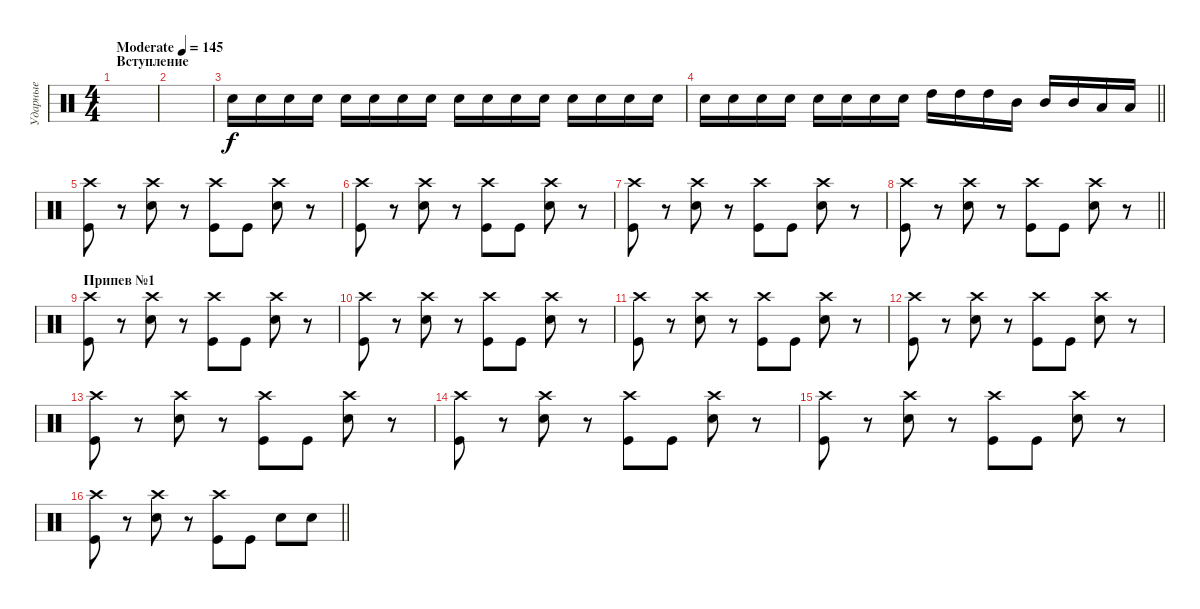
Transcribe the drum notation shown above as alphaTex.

\track ("Ударные" "Ударные") {instrument percussion}
\staff {score}
\articulation defaults
\ts (4 4)
\section ("" "Вступление")
\tempo (145 "Moderate")
\clef neutral
\ks c
|
|
"Electric Snare (hit)".16 "Electric Snare (hit)".16 "Electric Snare (hit)".16 "Electric Snare (hit)".16 "Electric Snare (hit)".16 "Electric Snare (hit)".16 "Electric Snare (hit)".16 "Electric Snare (hit)".16 "Electric Snare (hit)".16 "Electric Snare (hit)".16 "Electric Snare (hit)".16 "Electric Snare (hit)".16 "Electric Snare (hit)".16 "Electric Snare (hit)".16 "Electric Snare (hit)".16 "Electric Snare (hit)".16 |
\barLineRight lightlight "Electric Snare (hit)".16 "Electric Snare (hit)".16 "Electric Snare (hit)".16 "Electric Snare (hit)".16 "Electric Snare (hit)".16 "Electric Snare (hit)".16 "Electric Snare (hit)".16 "Electric Snare (hit)".16 "High Tom (hit)".16 "High Tom (hit)".16 "High Tom (hit)".16 "Mid Tom (hit)".16 "Mid Tom (hit)".16 "Mid Tom (hit)".16 "Low Tom (hit)".16 "Low Tom (hit)".16
|
\section ("" "")
("Kick (hit)" "Crash high (hit)").8 r.8 ("Electric Snare (hit)" "Crash high (hit)").8 r.8 ("Kick (hit)" "Crash high (hit)").8 "Kick (hit)".8 ("Electric Snare (hit)" "Crash high (hit)").8 r.8 |
("Kick (hit)" "Crash high (hit)").8 r.8 ("Electric Snare (hit)" "Crash high (hit)").8 r.8 ("Kick (hit)" "Crash high (hit)").8 "Kick (hit)".8 ("Electric Snare (hit)" "Crash high (hit)").8 r.8 |
("Kick (hit)" "Crash high (hit)").8 r.8 ("Electric Snare (hit)" "Crash high (hit)").8 r.8 ("Kick (hit)" "Crash high (hit)").8 "Kick (hit)".8 ("Electric Snare (hit)" "Crash high (hit)").8 r.8 |
\barLineRight lightlight
("Kick (hit)" "Crash high (hit)").8 r.8 ("Electric Snare (hit)" "Crash high (hit)").8 r.8 ("Kick (hit)" "Crash high (hit)").8 "Kick (hit)".8 ("Electric Snare (hit)" "Crash high (hit)").8 r.8 |
\section ("" "Припев №1")
("Kick (hit)" "Crash high (hit)").8 r.8 ("Electric Snare (hit)" "Crash high (hit)").8 r.8 ("Kick (hit)" "Crash high (hit)").8 "Kick (hit)".8 ("Electric Snare (hit)" "Crash high (hit)").8 r.8 |
("Kick (hit)" "Crash high (hit)").8 r.8 ("Electric Snare (hit)" "Crash high (hit)").8 r.8 ("Kick (hit)" "Crash high (hit)").8 "Kick (hit)".8 ("Electric Snare (hit)" "Crash high (hit)").8 r.8 |
("Kick (hit)" "Crash high (hit)").8 r.8 ("Electric Snare (hit)" "Crash high (hit)").8 r.8 ("Kick (hit)" "Crash high (hit)").8 "Kick (hit)".8 ("Electric Snare (hit)" "Crash high (hit)").8 r.8 |
("Kick (hit)" "Crash high (hit)").8 r.8 ("Electric Snare (hit)" "Crash high (hit)").8 r.8 ("Kick (hit)" "Crash high (hit)").8 "Kick (hit)".8 ("Electric Snare (hit)" "Crash high (hit)").8 r.8 |
("Kick (hit)" "Crash high (hit)").8 r.8 ("Electric Snare (hit)" "Crash high (hit)").8 r.8 ("Kick (hit)" "Crash high (hit)").8 "Kick (hit)".8 ("Electric Snare (hit)" "Crash high (hit)").8 r.8 |
("Kick (hit)" "Crash high (hit)").8 r.8 ("Electric Snare (hit)" "Crash high (hit)").8 r.8 ("Kick (hit)" "Crash high (hit)").8 "Kick (hit)".8 ("Electric Snare (hit)" "Crash high (hit)").8 r.8 |
("Kick (hit)" "Crash high (hit)").8 r.8 ("Electric Snare (hit)" "Crash high (hit)").8 r.8 ("Kick (hit)" "Crash high (hit)").8 "Kick (hit)".8 ("Electric Snare (hit)" "Crash high (hit)").8 r.8 |
\barLineRight lightlight
("Kick (hit)" "Crash high (hit)").8 r.8 ("Electric Snare (hit)" "Crash high (hit)").8 r.8 ("Kick (hit)" "Crash high (hit)").8 "Kick (hit)".8 "Electric Snare (hit)".8 "Electric Snare (hit)".8
